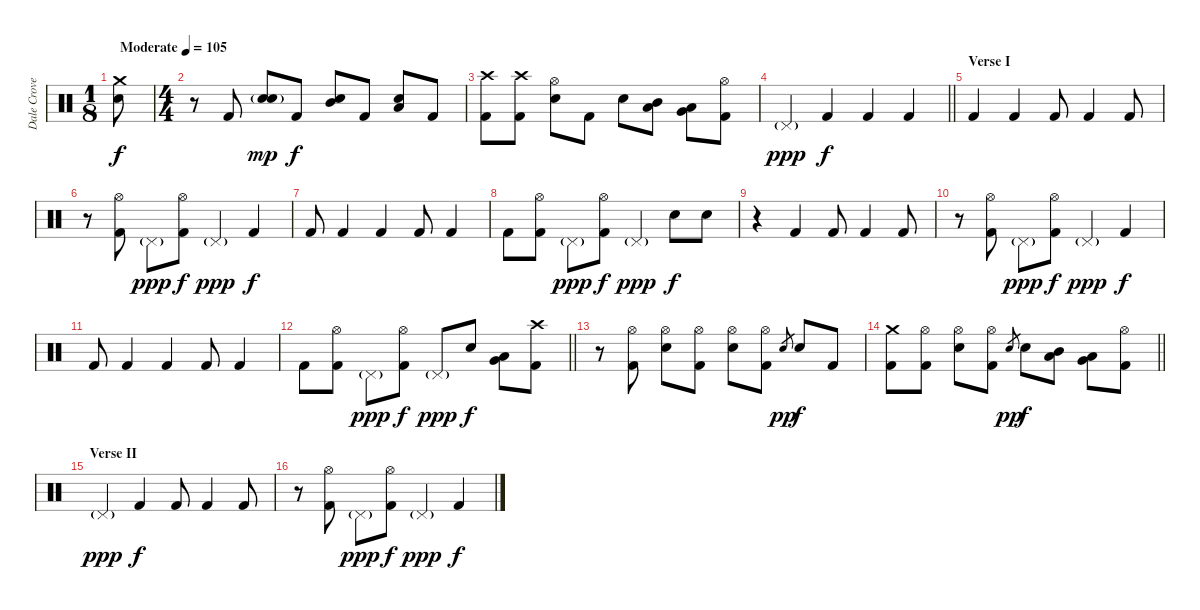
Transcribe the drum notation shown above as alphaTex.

\track ("Dale Crover" "Dale Crove") {instrument percussion}
\staff {score}
\articulation defaults
\ts (1 8)
\tempo (105 "Moderate")
\clef neutral
\ks c
("Crash medium (hit)" "Electric Snare (hit)").8{dy f} |
\ts (4 4)
r.8 "Kick (hit) 2".8 ("Electric Snare (hit)"{g} "Electric Snare (hit)").8{dy mp} "Kick (hit) 2".8{dy f} ("Mid Tom (hit)" "Electric Snare (hit)").8 "Kick (hit) 2".8 ("Low Tom (hit)" "Electric Snare (hit)").8 "Kick (hit) 2".8 |
("Crash high (hit)" "Kick (hit) 2").8 ("Crash high (hit)" "Kick (hit) 2").8 ("Hi-Hat (open)" "Electric Snare (hit)").8 "Kick (hit) 2".8 "Electric Snare (hit)".8 ("Mid Tom (hit)" "Low Tom (hit)").8 ("Low Tom (hit)" "Very Low Tom (hit)").8 ("Hi-Hat (open)" "Kick (hit) 2").8 |
\barLineRight lightlight "Pedal Hi-Hat (hit)"{g}.4{dy ppp} "Kick (hit) 2".4{dy f} "Kick (hit) 2".4 "Kick (hit) 2".4
|
\section ("" "Verse I")
"Kick (hit) 2".4 "Kick (hit) 2".4 "Kick (hit) 2".8 "Kick (hit) 2".4 "Kick (hit) 2".8 |
r.8 ("Hi-Hat (open)" "Kick (hit) 2").8 "Pedal Hi-Hat (hit)"{g}.8{dy ppp} ("Hi-Hat (open)" "Kick (hit) 2").8{dy f} "Pedal Hi-Hat (hit)"{g}.4{dy ppp} "Kick (hit) 2".4{dy f} |
"Kick (hit) 2".8 "Kick (hit) 2".4 "Kick (hit) 2".4 "Kick (hit) 2".8 "Kick (hit) 2".4 |
"Kick (hit) 2".8 ("Hi-Hat (open)" "Kick (hit) 2").8 "Pedal Hi-Hat (hit)"{g}.8{dy ppp} ("Hi-Hat (open)" "Kick (hit) 2").8{dy f} "Pedal Hi-Hat (hit)"{g}.4{dy ppp} "Electric Snare (hit)".8{dy f} "Electric Snare (hit)".8 |
r.4 "Kick (hit) 2".4 "Kick (hit) 2".8 "Kick (hit) 2".4 "Kick (hit) 2".8 |
r.8 ("Hi-Hat (open)" "Kick (hit) 2").8 "Pedal Hi-Hat (hit)"{g}.8{dy ppp} ("Hi-Hat (open)" "Kick (hit) 2").8{dy f} "Pedal Hi-Hat (hit)"{g}.4{dy ppp} "Kick (hit) 2".4{dy f} |
"Kick (hit) 2".8 "Kick (hit) 2".4 "Kick (hit) 2".4 "Kick (hit) 2".8 "Kick (hit) 2".4 |
\barLineRight lightlight "Kick (hit) 2".8
("Hi-Hat (open)" "Kick (hit) 2").8 "Pedal Hi-Hat (hit)"{g}.8{dy ppp} ("Hi-Hat (open)" "Kick (hit) 2").8{dy f} "Pedal Hi-Hat (hit)"{g}.8{dy ppp} "Electric Snare (hit)".8{dy f} ("Low Tom (hit)" "Very Low Tom (hit)").8 ("Crash high (hit)" "Kick (hit) 2").8 |
\section ("" "")
r.8 ("Hi-Hat (open)" "Kick (hit) 2").8 ("Hi-Hat (open)" "Electric Snare (hit)").8 ("Hi-Hat (open)" "Kick (hit) 2").8 ("Hi-Hat (open)" "Electric Snare (hit)").8 ("Hi-Hat (open)" "Kick (hit) 2").8 "Electric Snare (hit)".8{gr dy pp} "Electric Snare (hit)".8{dy f} "Kick (hit) 2".8 |
\barLineRight lightlight
("Crash medium (hit)" "Kick (hit) 2").8 ("Hi-Hat (open)" "Kick (hit) 2").8 ("Hi-Hat (open)" "Electric Snare (hit)").8 ("Hi-Hat (open)" "Kick (hit) 2").8 "Electric Snare (hit)".8{gr dy pp} "Electric Snare (hit)".8{dy f} ("Mid Tom (hit)" "Low Tom (hit)").8 ("Low Tom (hit)" "Very Low Tom (hit)").8 ("Hi-Hat (open)" "Kick (hit) 2").8 |
\section ("" "Verse II")
"Pedal Hi-Hat (hit)"{g}.4{dy ppp} "Kick (hit) 2".4{dy f} "Kick (hit) 2".8 "Kick (hit) 2".4 "Kick (hit) 2".8 |
r.8 ("Hi-Hat (open)" "Kick (hit) 2").8 "Pedal Hi-Hat (hit)"{g}.8{dy ppp} ("Hi-Hat (open)" "Kick (hit) 2").8{dy f} "Pedal Hi-Hat (hit)"{g}.4{dy ppp} "Kick (hit) 2".4{dy f}
